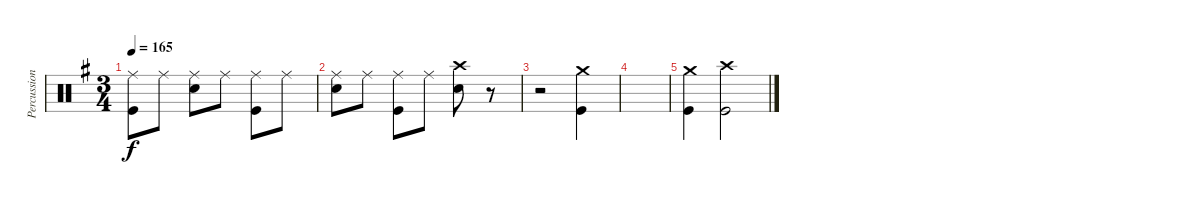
\track ("Percussion" "Percussion") {instrument percussion}
\staff {score}
\articulation defaults
\ts (3 4)
\tempo 165
\clef neutral
\ks g
("Ride (middle)" "Kick (hit)").8{dy f} "Ride (middle)".8 ("Ride (middle)" "Snare (hit) 2").8 "Ride (middle)".8 ("Ride (middle)" "Kick (hit)").8 "Ride (middle)".8 |
("Ride (middle)" "Snare (hit) 2").8 "Ride (middle)".8 ("Ride (middle)" "Kick (hit)").8 "Ride (middle)".8 ("Crash high (hit)" "Snare (hit) 2").8 r.8 |
r.2 ("Crash medium (hit)" "Kick (hit)").4 |
|
("Crash medium (hit)" "Kick (hit)").4 ("Crash high (hit)" "Kick (hit)").2
